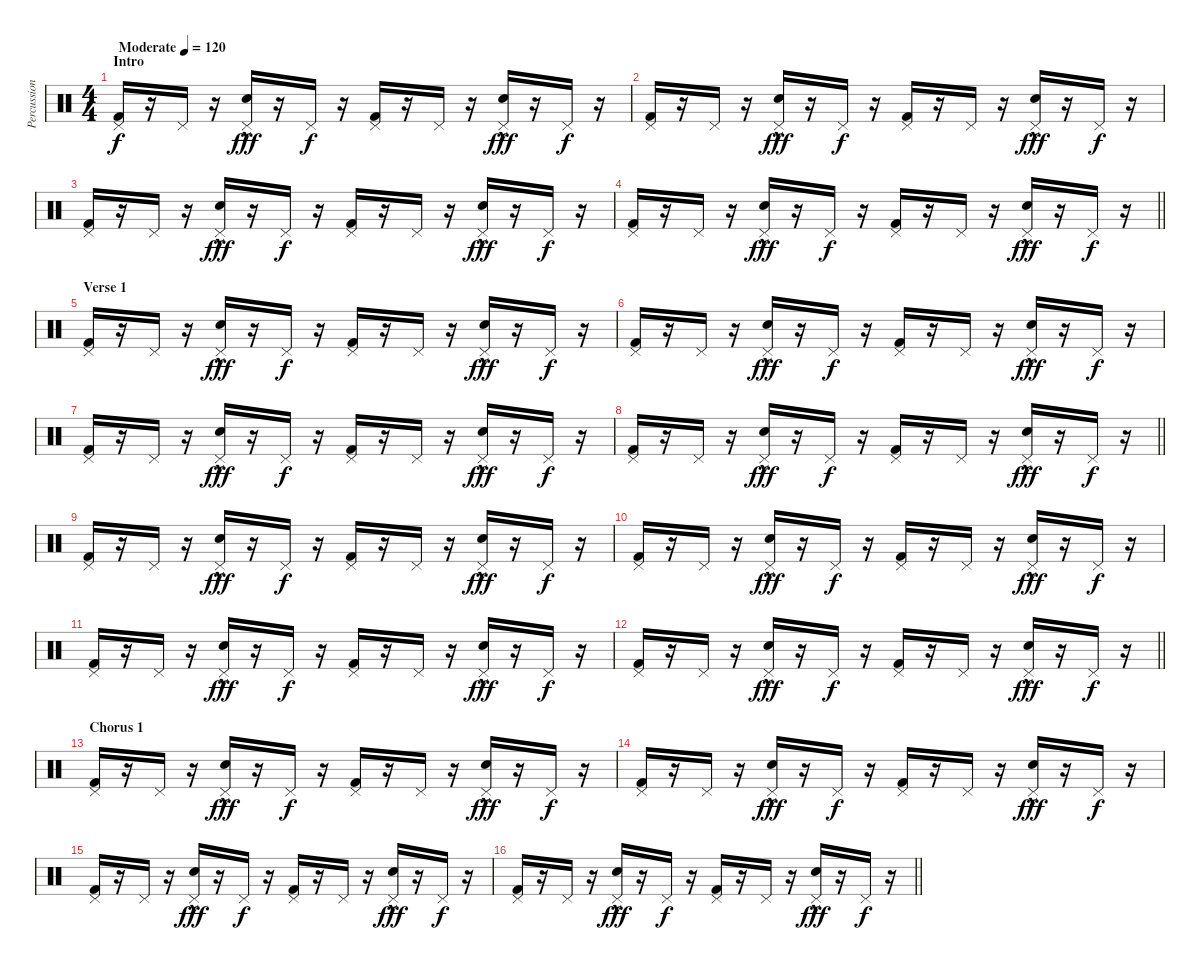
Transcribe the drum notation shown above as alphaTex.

\track ("Percussion" "Percussion") {instrument percussion}
\staff {score}
\articulation defaults
\ts (4 4)
\section ("" "Intro")
\tempo (120 "Moderate")
\tempo 81
\tempo (120 "Moderate")
\clef neutral
\ks c
("Kick (hit) 2" "Pedal Hi-Hat (hit)").16{dy f} r.16 "Pedal Hi-Hat (hit)".16 r.16 ("Snare (hit) 2"{hac} "Pedal Hi-Hat (hit)").16{dy fff} r.16 "Pedal Hi-Hat (hit)".16{dy f} r.16 ("Kick (hit) 2" "Pedal Hi-Hat (hit)").16 r.16 "Pedal Hi-Hat (hit)".16 r.16 ("Snare (hit) 2"{hac} "Pedal Hi-Hat (hit)").16{dy fff} r.16 "Pedal Hi-Hat (hit)".16{dy f} r.16 |
("Kick (hit) 2" "Pedal Hi-Hat (hit)").16 r.16 "Pedal Hi-Hat (hit)".16 r.16 ("Snare (hit) 2"{hac} "Pedal Hi-Hat (hit)").16{dy fff} r.16 "Pedal Hi-Hat (hit)".16{dy f} r.16 ("Kick (hit) 2" "Pedal Hi-Hat (hit)").16 r.16 "Pedal Hi-Hat (hit)".16 r.16 ("Snare (hit) 2"{hac} "Pedal Hi-Hat (hit)").16{dy fff} r.16 "Pedal Hi-Hat (hit)".16{dy f} r.16 |
("Kick (hit) 2" "Pedal Hi-Hat (hit)").16 r.16 "Pedal Hi-Hat (hit)".16 r.16 ("Snare (hit) 2"{hac} "Pedal Hi-Hat (hit)").16{dy fff} r.16 "Pedal Hi-Hat (hit)".16{dy f} r.16 ("Kick (hit) 2" "Pedal Hi-Hat (hit)").16 r.16 "Pedal Hi-Hat (hit)".16 r.16 ("Snare (hit) 2"{hac} "Pedal Hi-Hat (hit)").16{dy fff} r.16 "Pedal Hi-Hat (hit)".16{dy f} r.16 |
\barLineRight lightlight
("Kick (hit) 2" "Pedal Hi-Hat (hit)").16 r.16 "Pedal Hi-Hat (hit)".16 r.16 ("Snare (hit) 2"{hac} "Pedal Hi-Hat (hit)").16{dy fff} r.16 "Pedal Hi-Hat (hit)".16{dy f} r.16 ("Kick (hit) 2" "Pedal Hi-Hat (hit)").16 r.16 "Pedal Hi-Hat (hit)".16 r.16 ("Snare (hit) 2"{hac} "Pedal Hi-Hat (hit)").16{dy fff} r.16 "Pedal Hi-Hat (hit)".16{dy f} r.16 |
\section ("" "Verse 1")
("Kick (hit) 2" "Pedal Hi-Hat (hit)").16 r.16 "Pedal Hi-Hat (hit)".16 r.16 ("Snare (hit) 2"{hac} "Pedal Hi-Hat (hit)").16{dy fff} r.16 "Pedal Hi-Hat (hit)".16{dy f} r.16 ("Kick (hit) 2" "Pedal Hi-Hat (hit)").16 r.16 "Pedal Hi-Hat (hit)".16 r.16 ("Snare (hit) 2"{hac} "Pedal Hi-Hat (hit)").16{dy fff} r.16 "Pedal Hi-Hat (hit)".16{dy f} r.16 |
("Kick (hit) 2" "Pedal Hi-Hat (hit)").16 r.16 "Pedal Hi-Hat (hit)".16 r.16 ("Snare (hit) 2"{hac} "Pedal Hi-Hat (hit)").16{dy fff} r.16 "Pedal Hi-Hat (hit)".16{dy f} r.16 ("Kick (hit) 2" "Pedal Hi-Hat (hit)").16 r.16 "Pedal Hi-Hat (hit)".16 r.16 ("Snare (hit) 2"{hac} "Pedal Hi-Hat (hit)").16{dy fff} r.16 "Pedal Hi-Hat (hit)".16{dy f} r.16 |
("Kick (hit) 2" "Pedal Hi-Hat (hit)").16 r.16 "Pedal Hi-Hat (hit)".16 r.16 ("Snare (hit) 2"{hac} "Pedal Hi-Hat (hit)").16{dy fff} r.16 "Pedal Hi-Hat (hit)".16{dy f} r.16 ("Kick (hit) 2" "Pedal Hi-Hat (hit)").16 r.16 "Pedal Hi-Hat (hit)".16 r.16 ("Snare (hit) 2"{hac} "Pedal Hi-Hat (hit)").16{dy fff} r.16 "Pedal Hi-Hat (hit)".16{dy f} r.16 |
\barLineRight lightlight
("Kick (hit) 2" "Pedal Hi-Hat (hit)").16 r.16 "Pedal Hi-Hat (hit)".16 r.16 ("Snare (hit) 2"{hac} "Pedal Hi-Hat (hit)").16{dy fff} r.16 "Pedal Hi-Hat (hit)".16{dy f} r.16 ("Kick (hit) 2" "Pedal Hi-Hat (hit)").16 r.16 "Pedal Hi-Hat (hit)".16 r.16 ("Snare (hit) 2"{hac} "Pedal Hi-Hat (hit)").16{dy fff} r.16 "Pedal Hi-Hat (hit)".16{dy f} r.16 |
("Kick (hit) 2" "Pedal Hi-Hat (hit)").16 r.16 "Pedal Hi-Hat (hit)".16 r.16 ("Snare (hit) 2"{hac} "Pedal Hi-Hat (hit)").16{dy fff} r.16 "Pedal Hi-Hat (hit)".16{dy f} r.16 ("Kick (hit) 2" "Pedal Hi-Hat (hit)").16 r.16 "Pedal Hi-Hat (hit)".16 r.16 ("Snare (hit) 2"{hac} "Pedal Hi-Hat (hit)").16{dy fff} r.16 "Pedal Hi-Hat (hit)".16{dy f} r.16 |
("Kick (hit) 2" "Pedal Hi-Hat (hit)").16 r.16 "Pedal Hi-Hat (hit)".16 r.16 ("Snare (hit) 2"{hac} "Pedal Hi-Hat (hit)").16{dy fff} r.16 "Pedal Hi-Hat (hit)".16{dy f} r.16 ("Kick (hit) 2" "Pedal Hi-Hat (hit)").16 r.16 "Pedal Hi-Hat (hit)".16 r.16 ("Snare (hit) 2"{hac} "Pedal Hi-Hat (hit)").16{dy fff} r.16 "Pedal Hi-Hat (hit)".16{dy f} r.16 |
("Kick (hit) 2" "Pedal Hi-Hat (hit)").16 r.16 "Pedal Hi-Hat (hit)".16 r.16 ("Snare (hit) 2"{hac} "Pedal Hi-Hat (hit)").16{dy fff} r.16 "Pedal Hi-Hat (hit)".16{dy f} r.16 ("Kick (hit) 2" "Pedal Hi-Hat (hit)").16 r.16 "Pedal Hi-Hat (hit)".16 r.16 ("Snare (hit) 2"{hac} "Pedal Hi-Hat (hit)").16{dy fff} r.16 "Pedal Hi-Hat (hit)".16{dy f} r.16 |
\barLineRight lightlight
("Kick (hit) 2" "Pedal Hi-Hat (hit)").16 r.16 "Pedal Hi-Hat (hit)".16 r.16 ("Snare (hit) 2"{hac} "Pedal Hi-Hat (hit)").16{dy fff} r.16 "Pedal Hi-Hat (hit)".16{dy f} r.16 ("Kick (hit) 2" "Pedal Hi-Hat (hit)").16 r.16 "Pedal Hi-Hat (hit)".16 r.16 ("Snare (hit) 2"{hac} "Pedal Hi-Hat (hit)").16{dy fff} r.16 "Pedal Hi-Hat (hit)".16{dy f} r.16 |
\section ("" "Chorus 1")
("Kick (hit) 2" "Pedal Hi-Hat (hit)").16 r.16 "Pedal Hi-Hat (hit)".16 r.16 ("Snare (hit) 2"{hac} "Pedal Hi-Hat (hit)").16{dy fff} r.16 "Pedal Hi-Hat (hit)".16{dy f} r.16 ("Kick (hit) 2" "Pedal Hi-Hat (hit)").16 r.16 "Pedal Hi-Hat (hit)".16 r.16 ("Snare (hit) 2"{hac} "Pedal Hi-Hat (hit)").16{dy fff} r.16 "Pedal Hi-Hat (hit)".16{dy f} r.16 |
("Kick (hit) 2" "Pedal Hi-Hat (hit)").16 r.16 "Pedal Hi-Hat (hit)".16 r.16 ("Snare (hit) 2"{hac} "Pedal Hi-Hat (hit)").16{dy fff} r.16 "Pedal Hi-Hat (hit)".16{dy f} r.16 ("Kick (hit) 2" "Pedal Hi-Hat (hit)").16 r.16 "Pedal Hi-Hat (hit)".16 r.16 ("Snare (hit) 2"{hac} "Pedal Hi-Hat (hit)").16{dy fff} r.16 "Pedal Hi-Hat (hit)".16{dy f} r.16 |
("Kick (hit) 2" "Pedal Hi-Hat (hit)").16 r.16 "Pedal Hi-Hat (hit)".16 r.16 ("Snare (hit) 2"{hac} "Pedal Hi-Hat (hit)").16{dy fff} r.16 "Pedal Hi-Hat (hit)".16{dy f} r.16 ("Kick (hit) 2" "Pedal Hi-Hat (hit)").16 r.16 "Pedal Hi-Hat (hit)".16 r.16 ("Snare (hit) 2"{hac} "Pedal Hi-Hat (hit)").16{dy fff} r.16 "Pedal Hi-Hat (hit)".16{dy f} r.16 |
\barLineRight lightlight
("Kick (hit) 2" "Pedal Hi-Hat (hit)").16 r.16 "Pedal Hi-Hat (hit)".16 r.16 ("Snare (hit) 2"{hac} "Pedal Hi-Hat (hit)").16{dy fff} r.16 "Pedal Hi-Hat (hit)".16{dy f} r.16 ("Kick (hit) 2" "Pedal Hi-Hat (hit)").16 r.16 "Pedal Hi-Hat (hit)".16 r.16 ("Snare (hit) 2"{hac} "Pedal Hi-Hat (hit)").16{dy fff} r.16 "Pedal Hi-Hat (hit)".16{dy f} r.16
